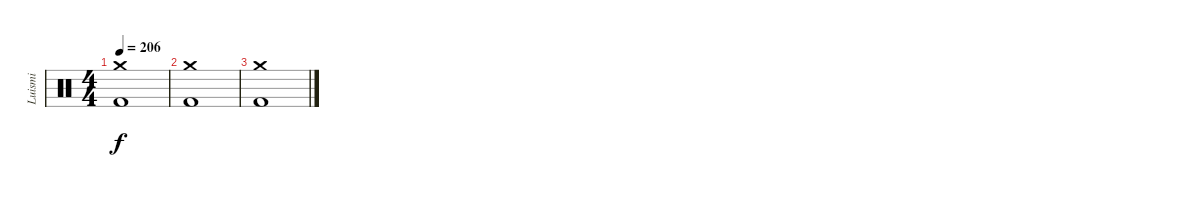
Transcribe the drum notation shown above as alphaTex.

\track ("Luismi" "Luismi") {instrument percussion}
\staff {score}
\articulation defaults
\ts (4 4)
\tempo 206
\clef neutral
\ks c
("Crash medium (hit)" "Kick (hit) 2").1{dy f} |
("Crash medium (hit)" "Kick (hit) 2").1 |
("Crash medium (hit)" "Kick (hit) 2").1
